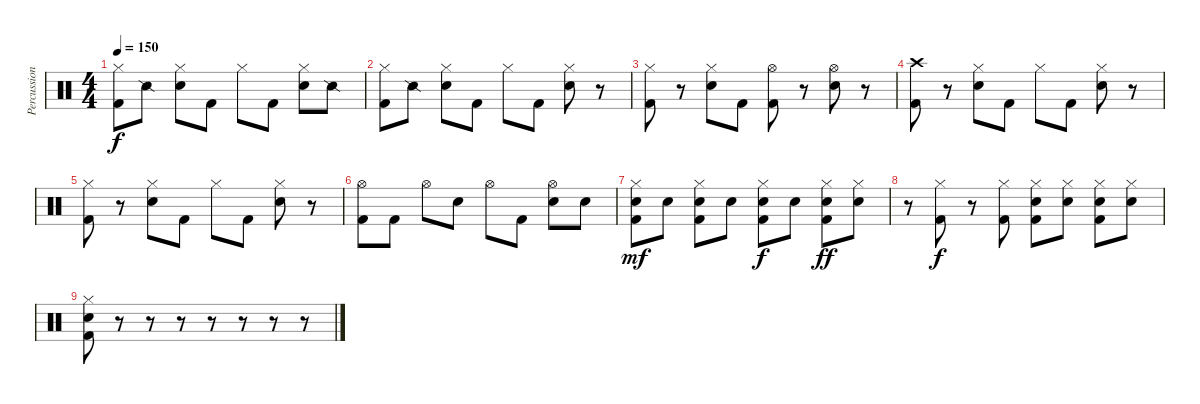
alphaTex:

\track ("Percussion" "Percussion") {instrument percussion}
\staff {score}
\articulation defaults
\ts (4 4)
\tempo 150
\clef neutral
\ks c
("Hi-Hat (closed)" "Kick (hit) 2").8{dy f} "Snare (side stick) 2".8 ("Hi-Hat (closed)" "Snare (hit) 2").8 "Kick (hit) 2".8 "Hi-Hat (closed)".8 "Kick (hit) 2".8 ("Hi-Hat (closed)" "Snare (hit) 2").8 "Snare (side stick) 2".8 |
("Hi-Hat (closed)" "Kick (hit) 2").8 "Snare (side stick) 2".8 ("Hi-Hat (closed)" "Snare (hit) 2").8 "Kick (hit) 2".8 "Hi-Hat (closed)".8 "Kick (hit) 2".8 ("Hi-Hat (closed)" "Snare (hit) 2").8 r.8 |
("Hi-Hat (closed)" "Kick (hit) 2").8 r.8 ("Hi-Hat (closed)" "Snare (hit) 2").8 "Kick (hit) 2".8 ("Hi-Hat (open)" "Kick (hit) 2").8 r.8 ("Hi-Hat (open)" "Snare (hit) 2").8 r.8 |
("Crash high (hit)" "Kick (hit) 2").8 r.8 ("Hi-Hat (closed)" "Snare (hit) 2").8 "Kick (hit) 2".8 "Hi-Hat (closed)".8 "Kick (hit) 2".8 ("Hi-Hat (closed)" "Snare (hit) 2").8 r.8 |
("Hi-Hat (closed)" "Kick (hit) 2").8 r.8 ("Hi-Hat (closed)" "Snare (hit) 2").8 "Kick (hit) 2".8 "Hi-Hat (closed)".8 "Kick (hit) 2".8 ("Hi-Hat (closed)" "Snare (hit) 2").8 r.8 |
("Hi-Hat (open)" "Kick (hit) 2").8 "Kick (hit) 2".8 "Hi-Hat (open)".8 "Snare (hit) 2".8 "Hi-Hat (open)".8 "Kick (hit) 2".8 ("Hi-Hat (open)" "Snare (hit) 2").8 "Snare (hit) 2".8 |
("Hi-Hat (closed)" "Snare (hit) 2" "Kick (hit) 2").8{dy mf} "Snare (hit) 2".8 ("Hi-Hat (closed)" "Snare (hit) 2" "Kick (hit) 2").8 "Snare (hit) 2".8 ("Hi-Hat (closed)" "Snare (hit) 2" "Kick (hit) 2").8{dy f} "Snare (hit) 2".8 ("Hi-Hat (closed)" "Snare (hit) 2" "Kick (hit) 2").8{dy ff} ("Hi-Hat (closed)" "Snare (hit) 2").8 |
r.8 ("Hi-Hat (closed)" "Kick (hit) 2").8{dy f} r.8 ("Hi-Hat (closed)" "Kick (hit) 2").8 ("Hi-Hat (closed)" "Snare (hit) 2" "Kick (hit) 2").8 ("Hi-Hat (closed)" "Snare (hit) 2").8 ("Hi-Hat (closed)" "Snare (hit) 2" "Kick (hit) 2").8 ("Hi-Hat (closed)" "Snare (hit) 2").8 |
("Hi-Hat (closed)" "Snare (hit) 2" "Kick (hit) 2").8 r.8 r.8 r.8 r.8 r.8 r.8 r.8
